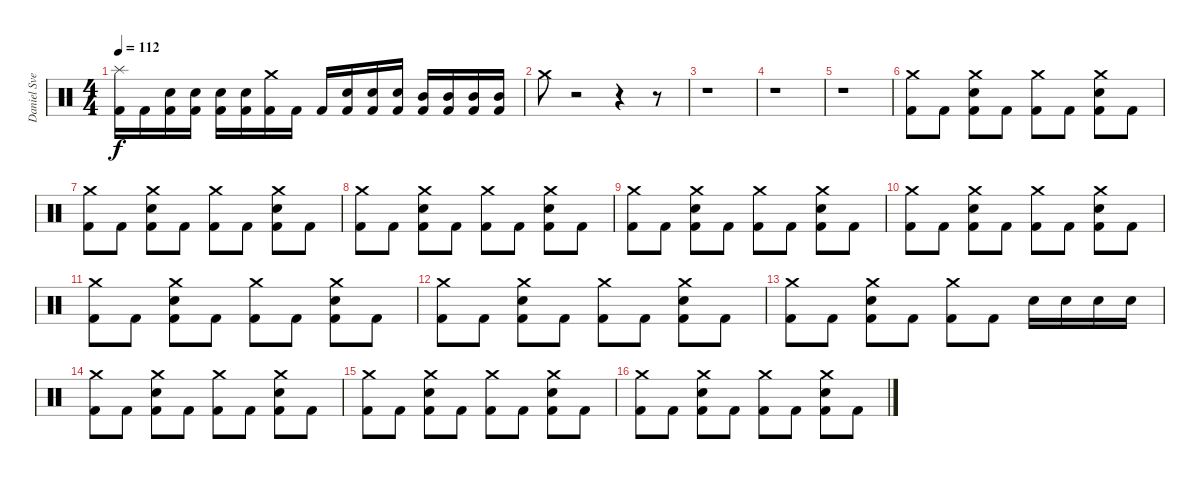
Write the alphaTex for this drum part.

\track ("Daniel Svensson" "Daniel Sve") {instrument percussion}
\staff {score}
\articulation defaults
\ts (4 4)
\tempo 112
\clef neutral
\ks c
("Splash (hit)" "Kick (hit) 2").16{dy f} "Kick (hit) 2".16 ("Snare (hit) 2" "Kick (hit) 2").16 ("Snare (hit) 2" "Kick (hit) 2").16 ("Snare (hit) 2" "Kick (hit) 2").16 ("Snare (hit) 2" "Kick (hit) 2").16 ("Crash medium (hit)" "Kick (hit) 2").16 "Kick (hit) 2".16 "Kick (hit) 2".16 ("Snare (hit) 2" "Kick (hit) 2").16 ("Snare (hit) 2" "Kick (hit) 2").16 ("Snare (hit) 2" "Kick (hit) 2").16 ("Mid Tom (hit)" "Kick (hit) 2").16 ("Mid Tom (hit)" "Kick (hit) 2").16 ("Mid Tom (hit)" "Kick (hit) 2").16 ("Mid Tom (hit)" "Kick (hit) 2").16 |
"Crash medium (hit)".8 r.2 r.4 r.8 |
r.1 |
r.1 |
r.1 |
("Crash medium (hit)" "Kick (hit) 2").8 "Kick (hit) 2".8 ("Crash medium (hit)" "Snare (hit) 2" "Kick (hit) 2").8 "Kick (hit) 2".8 ("Crash medium (hit)" "Kick (hit) 2").8 "Kick (hit) 2".8 ("Crash medium (hit)" "Snare (hit) 2" "Kick (hit) 2").8 "Kick (hit) 2".8 |
("Crash medium (hit)" "Kick (hit) 2").8 "Kick (hit) 2".8 ("Crash medium (hit)" "Snare (hit) 2" "Kick (hit) 2").8 "Kick (hit) 2".8 ("Crash medium (hit)" "Kick (hit) 2").8 "Kick (hit) 2".8 ("Crash medium (hit)" "Snare (hit) 2" "Kick (hit) 2").8 "Kick (hit) 2".8 |
("Crash medium (hit)" "Kick (hit) 2").8 "Kick (hit) 2".8 ("Crash medium (hit)" "Snare (hit) 2" "Kick (hit) 2").8 "Kick (hit) 2".8 ("Crash medium (hit)" "Kick (hit) 2").8 "Kick (hit) 2".8 ("Crash medium (hit)" "Snare (hit) 2" "Kick (hit) 2").8 "Kick (hit) 2".8 |
("Crash medium (hit)" "Kick (hit) 2").8 "Kick (hit) 2".8 ("Crash medium (hit)" "Snare (hit) 2" "Kick (hit) 2").8 "Kick (hit) 2".8 ("Crash medium (hit)" "Kick (hit) 2").8 "Kick (hit) 2".8 ("Crash medium (hit)" "Snare (hit) 2" "Kick (hit) 2").8 "Kick (hit) 2".8 |
("Crash medium (hit)" "Kick (hit) 2").8 "Kick (hit) 2".8 ("Crash medium (hit)" "Snare (hit) 2" "Kick (hit) 2").8 "Kick (hit) 2".8 ("Crash medium (hit)" "Kick (hit) 2").8 "Kick (hit) 2".8 ("Crash medium (hit)" "Snare (hit) 2" "Kick (hit) 2").8 "Kick (hit) 2".8 |
("Crash medium (hit)" "Kick (hit) 2").8 "Kick (hit) 2".8 ("Crash medium (hit)" "Snare (hit) 2" "Kick (hit) 2").8 "Kick (hit) 2".8 ("Crash medium (hit)" "Kick (hit) 2").8 "Kick (hit) 2".8 ("Crash medium (hit)" "Snare (hit) 2" "Kick (hit) 2").8 "Kick (hit) 2".8 |
("Crash medium (hit)" "Kick (hit) 2").8 "Kick (hit) 2".8 ("Crash medium (hit)" "Snare (hit) 2" "Kick (hit) 2").8 "Kick (hit) 2".8 ("Crash medium (hit)" "Kick (hit) 2").8 "Kick (hit) 2".8 ("Crash medium (hit)" "Snare (hit) 2" "Kick (hit) 2").8 "Kick (hit) 2".8 |
("Crash medium (hit)" "Kick (hit) 2").8 "Kick (hit) 2".8 ("Crash medium (hit)" "Snare (hit) 2" "Kick (hit) 2").8 "Kick (hit) 2".8 ("Crash medium (hit)" "Kick (hit) 2").8 "Kick (hit) 2".8 "Snare (hit) 2".16 "Snare (hit) 2".16 "Snare (hit) 2".16 "Snare (hit) 2".16 |
("Crash medium (hit)" "Kick (hit) 2").8 "Kick (hit) 2".8 ("Crash medium (hit)" "Snare (hit) 2" "Kick (hit) 2").8 "Kick (hit) 2".8 ("Crash medium (hit)" "Kick (hit) 2").8 "Kick (hit) 2".8 ("Crash medium (hit)" "Snare (hit) 2" "Kick (hit) 2").8 "Kick (hit) 2".8 |
("Crash medium (hit)" "Kick (hit) 2").8 "Kick (hit) 2".8 ("Crash medium (hit)" "Snare (hit) 2" "Kick (hit) 2").8 "Kick (hit) 2".8 ("Crash medium (hit)" "Kick (hit) 2").8 "Kick (hit) 2".8 ("Crash medium (hit)" "Snare (hit) 2" "Kick (hit) 2").8 "Kick (hit) 2".8 |
("Crash medium (hit)" "Kick (hit) 2").8 "Kick (hit) 2".8 ("Crash medium (hit)" "Snare (hit) 2" "Kick (hit) 2").8 "Kick (hit) 2".8 ("Crash medium (hit)" "Kick (hit) 2").8 "Kick (hit) 2".8 ("Crash medium (hit)" "Snare (hit) 2" "Kick (hit) 2").8 "Kick (hit) 2".8
